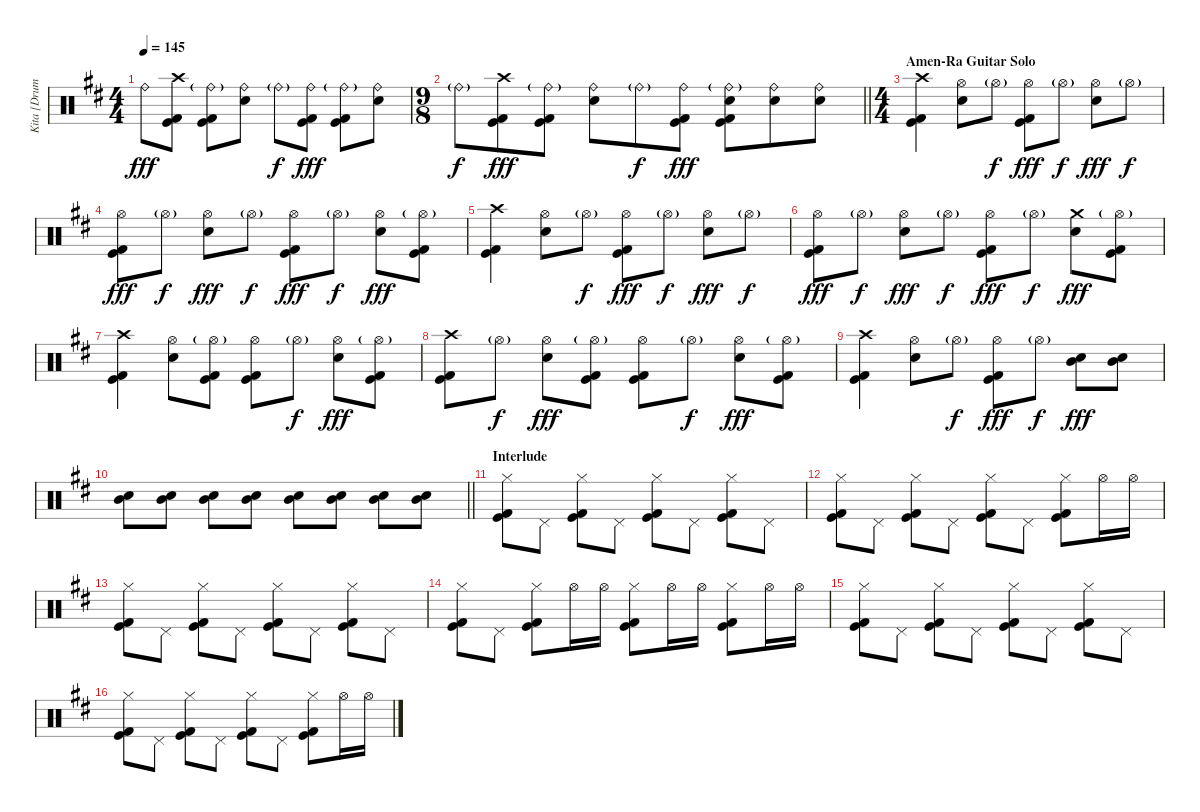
\track ("Kita [Drums]" "Kita [Drum") {instrument percussion}
\staff {score}
\articulation defaults
\ts (4 4)
\tempo 145
\clef neutral
\ks d "Ride (bell)".8{dy fff}
("Crash high (hit)" "Kick (hit)" "Kick (hit) 2").8 ("Ride (bell)"{g} "Kick (hit)" "Kick (hit) 2").8 ("Ride (bell)" "Electric Snare (hit)").8 "Ride (bell)"{g}.8{dy f} ("Ride (bell)" "Kick (hit)" "Kick (hit) 2").8{dy fff} ("Ride (bell)"{g} "Kick (hit)" "Kick (hit) 2").8 ("Ride (bell)" "Electric Snare (hit)").8 |
\ts (9 8)
\barLineRight lightlight "Ride (bell)"{g}.8{dy f}
("Crash high (hit)" "Kick (hit)" "Kick (hit) 2").8{dy fff} ("Ride (bell)"{g} "Kick (hit)" "Kick (hit) 2").8 ("Ride (bell)" "Electric Snare (hit)").8 "Ride (bell)"{g}.8{dy f} ("Ride (bell)" "Kick (hit)" "Kick (hit) 2").8{dy fff} ("Ride (bell)"{g} "Electric Snare (hit)" "Kick (hit)" "Kick (hit) 2").8 ("Ride (bell)" "Electric Snare (hit)").8 ("Ride (bell)" "Electric Snare (hit)").8 |
\ts (4 4)
\section ("" "Amen-Ra Guitar Solo")
("Crash high (hit)" "Kick (hit)" "Kick (hit) 2").4 ("Hi-Hat (open)" "Electric Snare (hit)").8 "Hi-Hat (open)"{g}.8{dy f} ("Hi-Hat (open)" "Kick (hit)" "Kick (hit) 2").8{dy fff} "Hi-Hat (open)"{g}.8{dy f} ("Hi-Hat (open)" "Electric Snare (hit)").8{dy fff} "Hi-Hat (open)"{g}.8{dy f} |
("Hi-Hat (open)" "Kick (hit)" "Kick (hit) 2").8{dy fff} "Hi-Hat (open)"{g}.8{dy f} ("Hi-Hat (open)" "Electric Snare (hit)").8{dy fff} "Hi-Hat (open)"{g}.8{dy f} ("Hi-Hat (open)" "Kick (hit)" "Kick (hit) 2").8{dy fff} "Hi-Hat (open)"{g}.8{dy f} ("Hi-Hat (open)" "Electric Snare (hit)").8{dy fff} ("Hi-Hat (open)"{g} "Kick (hit)" "Kick (hit) 2").8 |
("Crash high (hit)" "Kick (hit)" "Kick (hit) 2").4 ("Hi-Hat (open)" "Electric Snare (hit)").8 "Hi-Hat (open)"{g}.8{dy f} ("Hi-Hat (open)" "Kick (hit)" "Kick (hit) 2").8{dy fff} "Hi-Hat (open)"{g}.8{dy f} ("Hi-Hat (open)" "Electric Snare (hit)").8{dy fff} "Hi-Hat (open)"{g}.8{dy f} |
("Hi-Hat (open)" "Kick (hit)" "Kick (hit) 2").8{dy fff} "Hi-Hat (open)"{g}.8{dy f} ("Hi-Hat (open)" "Electric Snare (hit)").8{dy fff} "Hi-Hat (open)"{g}.8{dy f} ("Hi-Hat (open)" "Kick (hit)" "Kick (hit) 2").8{dy fff} "Hi-Hat (open)"{g}.8{dy f} ("Crash medium (hit)" "Electric Snare (hit)").8{dy fff} ("Hi-Hat (open)"{g} "Kick (hit)" "Kick (hit) 2").8 |
("Crash high (hit)" "Kick (hit)" "Kick (hit) 2").4 ("Hi-Hat (open)" "Electric Snare (hit)").8 ("Hi-Hat (open)"{g} "Kick (hit)" "Kick (hit) 2").8 ("Hi-Hat (open)" "Kick (hit)" "Kick (hit) 2").8 "Hi-Hat (open)"{g}.8{dy f} ("Hi-Hat (open)" "Electric Snare (hit)").8{dy fff} ("Hi-Hat (open)"{g} "Kick (hit)" "Kick (hit) 2").8 |
("Crash high (hit)" "Kick (hit)" "Kick (hit) 2").8 "Hi-Hat (open)"{g}.8{dy f} ("Hi-Hat (open)" "Electric Snare (hit)").8{dy fff} ("Hi-Hat (open)"{g} "Kick (hit)" "Kick (hit) 2").8 ("Hi-Hat (open)" "Kick (hit)" "Kick (hit) 2").8 "Hi-Hat (open)"{g}.8{dy f} ("Hi-Hat (open)" "Electric Snare (hit)").8{dy fff} ("Hi-Hat (open)"{g} "Kick (hit)" "Kick (hit) 2").8 |
("Crash high (hit)" "Kick (hit)" "Kick (hit) 2").4 ("Hi-Hat (open)" "Electric Snare (hit)").8 "Hi-Hat (open)"{g}.8{dy f} ("Hi-Hat (open)" "Kick (hit)" "Kick (hit) 2").8{dy fff} "Hi-Hat (open)"{g}.8{dy f} ("Mid Tom (hit)" "Electric Snare (hit)").8{dy fff} ("Mid Tom (hit)" "Electric Snare (hit)").8 |
\barLineRight lightlight
("Mid Tom (hit)" "Electric Snare (hit)").8 ("Mid Tom (hit)" "Electric Snare (hit)").8 ("Mid Tom (hit)" "Electric Snare (hit)").8 ("Mid Tom (hit)" "Electric Snare (hit)").8 ("Mid Tom (hit)" "Electric Snare (hit)").8 ("Mid Tom (hit)" "Electric Snare (hit)").8 ("Mid Tom (hit)" "Electric Snare (hit)").8 ("Mid Tom (hit)" "Electric Snare (hit)").8 |
\section ("" "Interlude")
("Hi-Hat (closed)" "Kick (hit)" "Kick (hit) 2").8 "Pedal Hi-Hat (hit)".8 ("Hi-Hat (closed)" "Kick (hit)" "Kick (hit) 2").8 "Pedal Hi-Hat (hit)".8 ("Hi-Hat (closed)" "Kick (hit)" "Kick (hit) 2").8 "Pedal Hi-Hat (hit)".8 ("Hi-Hat (closed)" "Kick (hit)" "Kick (hit) 2").8 "Pedal Hi-Hat (hit)".8 |
("Hi-Hat (closed)" "Kick (hit)" "Kick (hit) 2").8 "Pedal Hi-Hat (hit)".8 ("Hi-Hat (closed)" "Kick (hit)" "Kick (hit) 2").8 "Pedal Hi-Hat (hit)".8 ("Hi-Hat (closed)" "Kick (hit)" "Kick (hit) 2").8 "Pedal Hi-Hat (hit)".8 ("Hi-Hat (closed)" "Kick (hit)" "Kick (hit) 2").8 "Hi-Hat (open)".16 "Hi-Hat (open)".16 |
("Hi-Hat (closed)" "Kick (hit)" "Kick (hit) 2").8 "Pedal Hi-Hat (hit)".8 ("Hi-Hat (closed)" "Kick (hit)" "Kick (hit) 2").8 "Pedal Hi-Hat (hit)".8 ("Hi-Hat (closed)" "Kick (hit)" "Kick (hit) 2").8 "Pedal Hi-Hat (hit)".8 ("Hi-Hat (closed)" "Kick (hit)" "Kick (hit) 2").8 "Pedal Hi-Hat (hit)".8 |
("Hi-Hat (closed)" "Kick (hit)" "Kick (hit) 2").8 "Pedal Hi-Hat (hit)".8 ("Hi-Hat (closed)" "Kick (hit)" "Kick (hit) 2").8 "Hi-Hat (open)".16 "Hi-Hat (open)".16 ("Hi-Hat (closed)" "Kick (hit)" "Kick (hit) 2").8 "Hi-Hat (open)".16 "Hi-Hat (open)".16 ("Hi-Hat (closed)" "Kick (hit)" "Kick (hit) 2").8 "Hi-Hat (open)".16 "Hi-Hat (open)".16 |
("Hi-Hat (closed)" "Kick (hit)" "Kick (hit) 2").8 "Pedal Hi-Hat (hit)".8 ("Hi-Hat (closed)" "Kick (hit)" "Kick (hit) 2").8 "Pedal Hi-Hat (hit)".8 ("Hi-Hat (closed)" "Kick (hit)" "Kick (hit) 2").8 "Pedal Hi-Hat (hit)".8 ("Hi-Hat (closed)" "Kick (hit)" "Kick (hit) 2").8 "Pedal Hi-Hat (hit)".8 |
("Hi-Hat (closed)" "Kick (hit)" "Kick (hit) 2").8 "Pedal Hi-Hat (hit)".8 ("Hi-Hat (closed)" "Kick (hit)" "Kick (hit) 2").8 "Pedal Hi-Hat (hit)".8 ("Hi-Hat (closed)" "Kick (hit)" "Kick (hit) 2").8 "Pedal Hi-Hat (hit)".8 ("Hi-Hat (closed)" "Kick (hit)" "Kick (hit) 2").8 "Hi-Hat (open)".16 "Hi-Hat (open)".16
